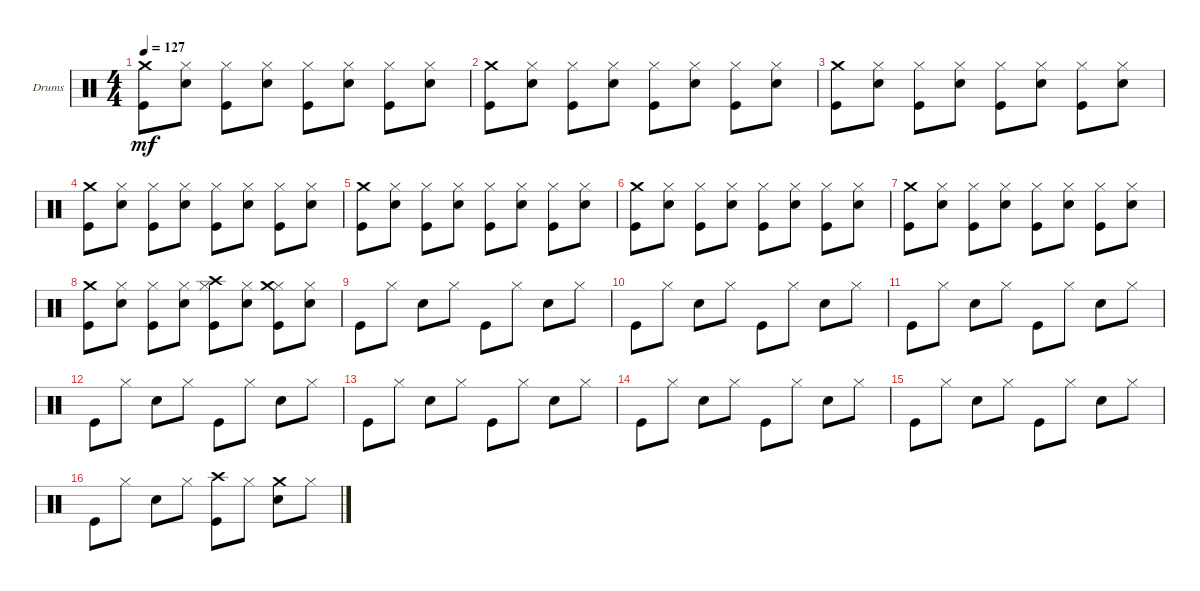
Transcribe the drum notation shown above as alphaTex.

\defaultSystemsLayout 4
\bracketExtendMode groupsimilarinstruments
\firstSystemTrackNameOrientation horizontal
\otherSystemsTrackNameOrientation horizontal
\track ("Е. Кулаков" "Drums") {instrument percussion}
\staff {score}
\articulation defaults
\ts (4 4)
\tempo 127
\clef neutral
\scale
0.333333
\ks c
("Kick (hit)" "Crash medium (hit)").8{dy mf} ("Snare (hit) 2" "Hi-Hat (closed)").8 ("Kick (hit)" "Hi-Hat (closed)").8 ("Snare (hit) 2" "Hi-Hat (closed)").8 ("Kick (hit)" "Hi-Hat (closed)").8 ("Snare (hit) 2" "Hi-Hat (closed)").8 ("Kick (hit)" "Hi-Hat (closed)").8 ("Snare (hit) 2" "Hi-Hat (closed)").8 |
\scale
0.333333 ("Kick (hit)" "Crash medium (hit)").8 ("Snare (hit) 2" "Hi-Hat (closed)").8 ("Kick (hit)" "Hi-Hat (closed)").8 ("Snare (hit) 2" "Hi-Hat (closed)").8 ("Kick (hit)" "Hi-Hat (closed)").8 ("Snare (hit) 2" "Hi-Hat (closed)").8 ("Kick (hit)" "Hi-Hat (closed)").8 ("Snare (hit) 2" "Hi-Hat (closed)").8 |
\scale
0.333333 ("Kick (hit)" "Crash medium (hit)").8 ("Snare (hit) 2" "Hi-Hat (closed)").8 ("Kick (hit)" "Hi-Hat (closed)").8 ("Snare (hit) 2" "Hi-Hat (closed)").8 ("Kick (hit)" "Hi-Hat (closed)").8 ("Snare (hit) 2" "Hi-Hat (closed)").8 ("Kick (hit)" "Hi-Hat (closed)").8 ("Snare (hit) 2" "Hi-Hat (closed)").8 |
\scale
0.333333 ("Kick (hit)" "Crash medium (hit)").8 ("Snare (hit) 2" "Hi-Hat (closed)").8 ("Kick (hit)" "Hi-Hat (closed)").8 ("Snare (hit) 2" "Hi-Hat (closed)").8 ("Kick (hit)" "Hi-Hat (closed)").8 ("Snare (hit) 2" "Hi-Hat (closed)").8 ("Kick (hit)" "Hi-Hat (closed)").8 ("Snare (hit) 2" "Hi-Hat (closed)").8 |
\scale
0.333333 ("Kick (hit)" "Crash medium (hit)").8 ("Snare (hit) 2" "Hi-Hat (closed)").8 ("Kick (hit)" "Hi-Hat (closed)").8 ("Snare (hit) 2" "Hi-Hat (closed)").8 ("Kick (hit)" "Hi-Hat (closed)").8 ("Snare (hit) 2" "Hi-Hat (closed)").8 ("Kick (hit)" "Hi-Hat (closed)").8 ("Snare (hit) 2" "Hi-Hat (closed)").8 |
\scale
0.333333 ("Kick (hit)" "Crash medium (hit)").8 ("Snare (hit) 2" "Hi-Hat (closed)").8 ("Kick (hit)" "Hi-Hat (closed)").8 ("Snare (hit) 2" "Hi-Hat (closed)").8 ("Kick (hit)" "Hi-Hat (closed)").8 ("Snare (hit) 2" "Hi-Hat (closed)").8 ("Kick (hit)" "Hi-Hat (closed)").8 ("Snare (hit) 2" "Hi-Hat (closed)").8 |
\scale
0.333333 ("Kick (hit)" "Crash medium (hit)").8 ("Snare (hit) 2" "Hi-Hat (closed)").8 ("Kick (hit)" "Hi-Hat (closed)").8 ("Snare (hit) 2" "Hi-Hat (closed)").8 ("Kick (hit)" "Hi-Hat (closed)").8 ("Snare (hit) 2" "Hi-Hat (closed)").8 ("Kick (hit)" "Hi-Hat (closed)").8 ("Snare (hit) 2" "Hi-Hat (closed)").8 |
\scale
0.333333 ("Kick (hit)" "Crash medium (hit)").8 ("Snare (hit) 2" "Hi-Hat (closed)").8 ("Kick (hit)" "Hi-Hat (closed)").8 ("Snare (hit) 2" "Hi-Hat (closed)").8 ("Kick (hit)" "Hi-Hat (closed)" "Crash high (hit)").8 ("Snare (hit) 2" "Hi-Hat (closed)").8 ("Kick (hit)" "Hi-Hat (closed)" "Crash medium (hit)").8 ("Snare (hit) 2" "Hi-Hat (closed)").8 |
\scale
0.333333 "Kick (hit)".8 "Hi-Hat (closed)".8 "Snare (hit) 2".8 "Hi-Hat (closed)".8 "Kick (hit)".8 "Hi-Hat (closed)".8 "Snare (hit) 2".8 "Hi-Hat (closed)".8 |
\scale
0.333333 "Kick (hit)".8 "Hi-Hat (closed)".8 "Snare (hit) 2".8 "Hi-Hat (closed)".8 "Kick (hit)".8 "Hi-Hat (closed)".8 "Snare (hit) 2".8 "Hi-Hat (closed)".8 |
\scale
0.333333 "Kick (hit)".8 "Hi-Hat (closed)".8 "Snare (hit) 2".8 "Hi-Hat (closed)".8 "Kick (hit)".8 "Hi-Hat (closed)".8 "Snare (hit) 2".8 "Hi-Hat (closed)".8 |
\scale
0.333333 "Kick (hit)".8 "Hi-Hat (closed)".8 "Snare (hit) 2".8 "Hi-Hat (closed)".8 "Kick (hit)".8 "Hi-Hat (closed)".8 "Snare (hit) 2".8 "Hi-Hat (closed)".8 |
\scale
0.333333 "Kick (hit)".8 "Hi-Hat (closed)".8 "Snare (hit) 2".8 "Hi-Hat (closed)".8 "Kick (hit)".8 "Hi-Hat (closed)".8 "Snare (hit) 2".8 "Hi-Hat (closed)".8 |
\scale
0.333333 "Kick (hit)".8 "Hi-Hat (closed)".8 "Snare (hit) 2".8 "Hi-Hat (closed)".8 "Kick (hit)".8 "Hi-Hat (closed)".8 "Snare (hit) 2".8 "Hi-Hat (closed)".8 |
\scale
0.333333 "Kick (hit)".8 "Hi-Hat (closed)".8 "Snare (hit) 2".8 "Hi-Hat (closed)".8 "Kick (hit)".8 "Hi-Hat (closed)".8 "Snare (hit) 2".8 "Hi-Hat (closed)".8 |
\scale
0.333333 "Kick (hit)".8 "Hi-Hat (closed)".8 "Snare (hit) 2".8 "Hi-Hat (closed)".8 ("Kick (hit)" "Crash high (hit)").8 "Hi-Hat (closed)".8 ("Snare (hit) 2" "Crash medium (hit)").8 "Hi-Hat (closed)".8
